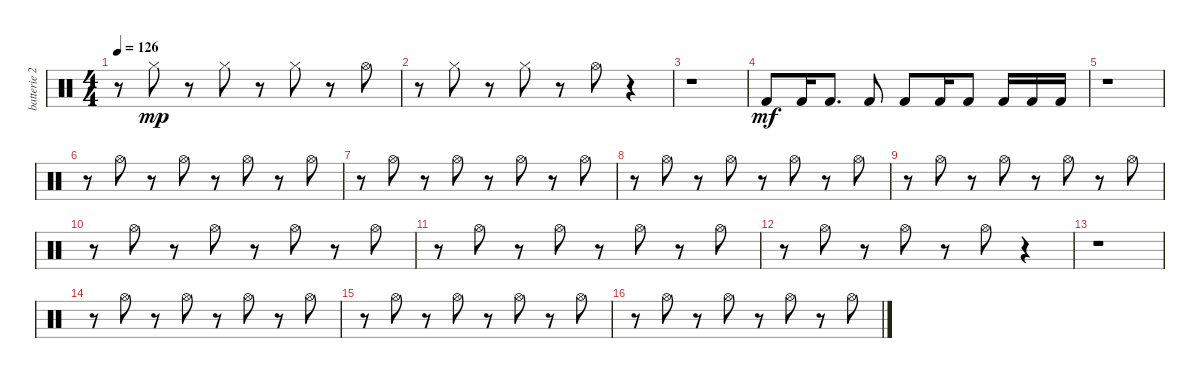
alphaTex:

\track ("batterie 2" "batterie 2") {instrument percussion}
\staff {score}
\articulation defaults
\ts (4 4)
\tempo 126
\clef neutral
\ks c
r.8{dy mp} "Hi-Hat (closed)".8 r.8 "Hi-Hat (closed)".8 r.8 "Hi-Hat (closed)".8 r.8 "Hi-Hat (open)".8 |
r.8 "Hi-Hat (closed)".8 r.8 "Hi-Hat (closed)".8 r.8 "Hi-Hat (open)".8 r.4 |
r.1 |
"Kick (hit) 2".8{dy mf} "Kick (hit) 2".16 "Kick (hit) 2".8{d} "Kick (hit) 2".8 "Kick (hit) 2".8 "Kick (hit) 2".16 "Kick (hit) 2".8 "Kick (hit) 2".16 "Kick (hit) 2".16 "Kick (hit) 2".16 |
r.1 |
r.8 "Hi-Hat (open)".8 r.8 "Hi-Hat (open)".8 r.8 "Hi-Hat (open)".8 r.8 "Hi-Hat (open)".8 |
r.8 "Hi-Hat (open)".8 r.8 "Hi-Hat (open)".8 r.8 "Hi-Hat (open)".8 r.8 "Hi-Hat (open)".8 |
r.8 "Hi-Hat (open)".8 r.8 "Hi-Hat (open)".8 r.8 "Hi-Hat (open)".8 r.8 "Hi-Hat (open)".8 |
r.8 "Hi-Hat (open)".8 r.8 "Hi-Hat (open)".8 r.8 "Hi-Hat (open)".8 r.8 "Hi-Hat (open)".8 |
r.8 "Hi-Hat (open)".8 r.8 "Hi-Hat (open)".8 r.8 "Hi-Hat (open)".8 r.8 "Hi-Hat (open)".8 |
r.8 "Hi-Hat (open)".8 r.8 "Hi-Hat (open)".8 r.8 "Hi-Hat (open)".8 r.8 "Hi-Hat (open)".8 |
r.8 "Hi-Hat (open)".8 r.8 "Hi-Hat (open)".8 r.8 "Hi-Hat (open)".8 r.4 |
r.1 |
r.8 "Hi-Hat (open)".8 r.8 "Hi-Hat (open)".8 r.8 "Hi-Hat (open)".8 r.8 "Hi-Hat (open)".8 |
r.8 "Hi-Hat (open)".8 r.8 "Hi-Hat (open)".8 r.8 "Hi-Hat (open)".8 r.8 "Hi-Hat (open)".8 |
r.8 "Hi-Hat (open)".8 r.8 "Hi-Hat (open)".8 r.8 "Hi-Hat (open)".8 r.8 "Hi-Hat (open)".8
